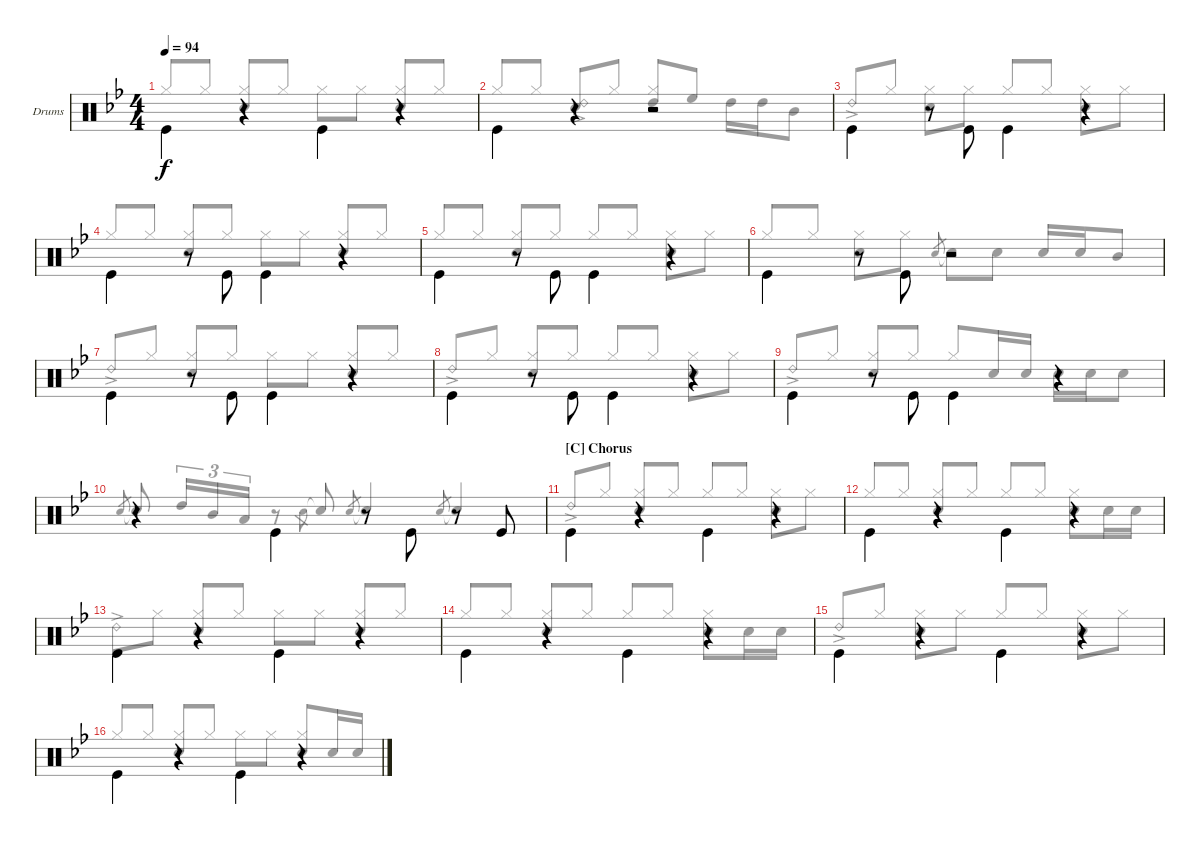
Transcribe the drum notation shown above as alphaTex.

\bracketExtendMode groupsimilarinstruments
\firstSystemTrackNameOrientation horizontal
\otherSystemsTrackNameOrientation horizontal
\track ("Drum" "Drums") {instrument percussion}
\staff {score}
\articulation defaults
\voice
\ts (4 4)
\tempo 94
\clef neutral
\scale
1.04918
\ks bb "Kick (hit)".4{dy f beam invert}
r.4{beam invert} "Kick (hit)".4{beam invert} r.4 |
\scale
0.95082 "Kick (hit)".4{beam invert} r.4{beam invert} r.2 |
\scale
1.04918 "Kick (hit)".4{beam invert} r.8 "Kick (hit)".8{beam invert} "Kick (hit)".4{beam invert} r.4 |
\scale
0.95082 "Kick (hit)".4{beam invert} r.8 "Kick (hit)".8{beam invert} "Kick (hit)".4{beam invert} r.4 |
\scale
1.04918 "Kick (hit)".4{beam invert} r.8 "Kick (hit)".8{beam invert} "Kick (hit)".4{beam invert} r.4 |
\scale
0.95082 "Kick (hit)".4{beam invert} r.8 "Kick (hit)".8{beam invert} r.2 |
\scale
1.04918 "Kick (hit)".4{beam invert} r.8 "Kick (hit)".8{beam invert} "Kick (hit)".4{beam invert} r.4 |
\scale
0.95082 "Kick (hit)".4{beam invert} r.8 "Kick (hit)".8{beam invert} "Kick (hit)".4{beam invert} r.4 |
\scale
1.04918 "Kick (hit)".4{beam invert} r.8 "Kick (hit)".8{beam invert} "Kick (hit)".4{beam invert} r.4 |
\scale
0.95082 r.4 "Kick (hit)".4{beam invert} r.8 "Kick (hit)".8{beam invert} r.8 "Kick (hit)".8 |
\section ("C" "Chorus")
\scale
1.04918 "Kick (hit)".4{beam invert} r.4{beam invert} "Kick (hit)".4{beam invert} r.4 |
\scale
0.95082 "Kick (hit)".4{beam invert} r.4{beam invert} "Kick (hit)".4{beam invert} r.4 |
\scale
1.04918 "Kick (hit)".4{beam invert} r.4{beam invert} "Kick (hit)".4{beam invert} r.4 |
\scale
0.95082 "Kick (hit)".4{beam invert} r.4{beam invert} "Kick (hit)".4{beam invert} r.4 |
\scale
1.04918 "Kick (hit)".4{beam invert} r.4{beam invert} "Kick (hit)".4{beam invert} r.4 |
\scale
0.95082 "Kick (hit)".4{beam invert} r.4{beam invert} "Kick (hit)".4{beam invert} r.4
\voice
\clef neutral
\ottava regular
\simile none
\scale
1.04918
\ks bb "Hi-Hat (closed)".8{dy f} "Hi-Hat (closed)".8
("Hi-Hat (closed)" "Snare (hit) 2").8{beam invert} "Hi-Hat (closed)".8 "Hi-Hat (closed)".8 "Hi-Hat (closed)".8 ("Hi-Hat (closed)" "Snare (hit) 2").8 "Hi-Hat (closed)".8{beam invert} |
\scale
0.95082 "Hi-Hat (closed)".8{beam invert} "Hi-Hat (closed)".8 ("Ride (bell) 2"{ac} "Snare (hit) 2").8 "Hi-Hat (closed)".8 ("Hi-Hat (closed)" "High Tom (hit)").8{beam invert} "High Floor Tom (hit)".8 "High Tom (hit)".16 "High Tom (hit)".16 "Mid Tom (hit)".8 |
\scale
1.04918 "Ride (bell) 2"{ac}.8{beam invert} "Hi-Hat (closed)".8 ("Hi-Hat (closed)" "Snare (hit) 2").8 "Hi-Hat (closed)".8 "Hi-Hat (closed)".8 "Hi-Hat (closed)".8{beam invert} ("Hi-Hat (closed)" "Snare (hit) 2").8 "Hi-Hat (closed)".8 |
\scale
0.95082 "Hi-Hat (closed)".8 "Hi-Hat (closed)".8 ("Hi-Hat (closed)" "Snare (hit) 2").8{beam invert} "Hi-Hat (closed)".8 "Hi-Hat (closed)".8 "Hi-Hat (closed)".8 ("Hi-Hat (closed)" "Snare (hit) 2").8 "Hi-Hat (closed)".8{beam invert} |
\scale
1.04918 "Hi-Hat (closed)".8{beam invert} "Hi-Hat (closed)".8 ("Hi-Hat (closed)" "Snare (hit) 2").8 "Hi-Hat (closed)".8 "Hi-Hat (closed)".8{beam invert} "Hi-Hat (closed)".8 ("Hi-Hat (closed)" "Snare (hit) 2").8 "Hi-Hat (closed)".8 |
\scale
0.95082 "Hi-Hat (closed)".8{beam invert} "Hi-Hat (closed)".8 ("Hi-Hat (closed)" "Snare (hit) 2").8 "Hi-Hat (closed)".8 "Snare (hit) 2".8{gr beam invert} "Snare (hit) 2"{t}.8 "Snare (hit) 2".8 "Snare (hit) 2".16 "Snare (hit) 2".16{beam invert} "Mid Tom (hit)".8 |
\scale
1.04918 "Ride (bell) 2"{ac}.8 "Hi-Hat (closed)".8 ("Hi-Hat (closed)" "Snare (hit) 2").8{beam invert} "Hi-Hat (closed)".8 "Hi-Hat (closed)".8 "Hi-Hat (closed)".8 ("Hi-Hat (closed)" "Snare (hit) 2").8 "Hi-Hat (closed)".8{beam invert} |
\scale
0.95082 "Ride (bell) 2"{ac}.8{beam invert} "Hi-Hat (closed)".8 ("Hi-Hat (closed)" "Snare (hit) 2").8 "Hi-Hat (closed)".8 "Hi-Hat (closed)".8{beam invert} "Hi-Hat (closed)".8 ("Hi-Hat (closed)" "Snare (hit) 2").8 "Hi-Hat (closed)".8 |
\scale
1.04918 "Ride (bell) 2"{ac}.8{beam invert} "Hi-Hat (closed)".8 ("Hi-Hat (closed)" "Snare (hit) 2").8 "Hi-Hat (closed)".8 "Hi-Hat (closed)".8{beam invert} "Snare (hit) 2".16 "Snare (hit) 2".16 "Snare (hit) 2".16 "Snare (hit) 2".16 "Snare (hit) 2".8 |
\scale
0.95082 "Snare (hit) 2".8{gr beam invert} "Snare (hit) 2"{t}.8{beam invert} "High Tom (hit)".16{tu (3 2)} "Mid Tom (hit)".16{tu (3 2)} "Low Tom (hit)".16{tu (3 2) beam invert} r.8{beam invert} "Snare (hit) 2".8{gr} "Snare (hit) 2"{t}.8 "Snare (hit) 2".8{gr beam invert} "Snare (hit) 2"{t}.4{beam invert} "Snare (hit) 2".8{gr beam invert} "Snare (hit) 2"{t}.4{beam invert} |
\scale
1.04918 "Ride (bell) 2"{ac}.8{beam invert} "Hi-Hat (closed)".8 ("Hi-Hat (closed)" "Snare (hit) 2").8 "Hi-Hat (closed)".8 "Hi-Hat (closed)".8{beam invert} "Hi-Hat (closed)".8 ("Hi-Hat (closed)" "Snare (hit) 2").8 "Hi-Hat (closed)".8 |
\scale
0.95082 "Hi-Hat (closed)".8{beam invert} "Hi-Hat (closed)".8 ("Hi-Hat (closed)" "Snare (hit) 2").8 "Hi-Hat (closed)".8 "Hi-Hat (closed)".8{beam invert} "Hi-Hat (closed)".8 ("Hi-Hat (closed)" "Snare (hit) 2").8 "Snare (hit) 2".16 "Snare (hit) 2".16 |
\scale
1.04918 "Ride (bell) 2"{ac}.8 "Hi-Hat (closed)".8 ("Hi-Hat (closed)" "Snare (hit) 2").8 "Hi-Hat (closed)".8{beam invert} "Hi-Hat (closed)".8 "Hi-Hat (closed)".8 ("Hi-Hat (closed)" "Snare (hit) 2").8 "Hi-Hat (closed)".8{beam invert} |
\scale
0.95082 "Hi-Hat (closed)".8{beam invert} "Hi-Hat (closed)".8 ("Hi-Hat (closed)" "Snare (hit) 2").8 "Hi-Hat (closed)".8 "Hi-Hat (closed)".8{beam invert} "Hi-Hat (closed)".8 ("Hi-Hat (closed)" "Snare (hit) 2").8 "Snare (hit) 2".16 "Snare (hit) 2".16 |
\scale
1.04918 "Ride (bell) 2"{ac}.8{beam invert} "Hi-Hat (closed)".8 ("Hi-Hat (closed)" "Snare (hit) 2").8 "Hi-Hat (closed)".8 "Hi-Hat (closed)".8 "Hi-Hat (closed)".8{beam invert} ("Hi-Hat (closed)" "Snare (hit) 2").8 "Hi-Hat (closed)".8 |
\scale
0.95082 "Hi-Hat (closed)".8 "Hi-Hat (closed)".8 ("Hi-Hat (closed)" "Snare (hit) 2").8{beam invert} "Hi-Hat (closed)".8 "Hi-Hat (closed)".8 "Hi-Hat (closed)".8 ("Hi-Hat (closed)" "Snare (hit) 2").8 "Snare (hit) 2".16{beam invert} "Snare (hit) 2".16
